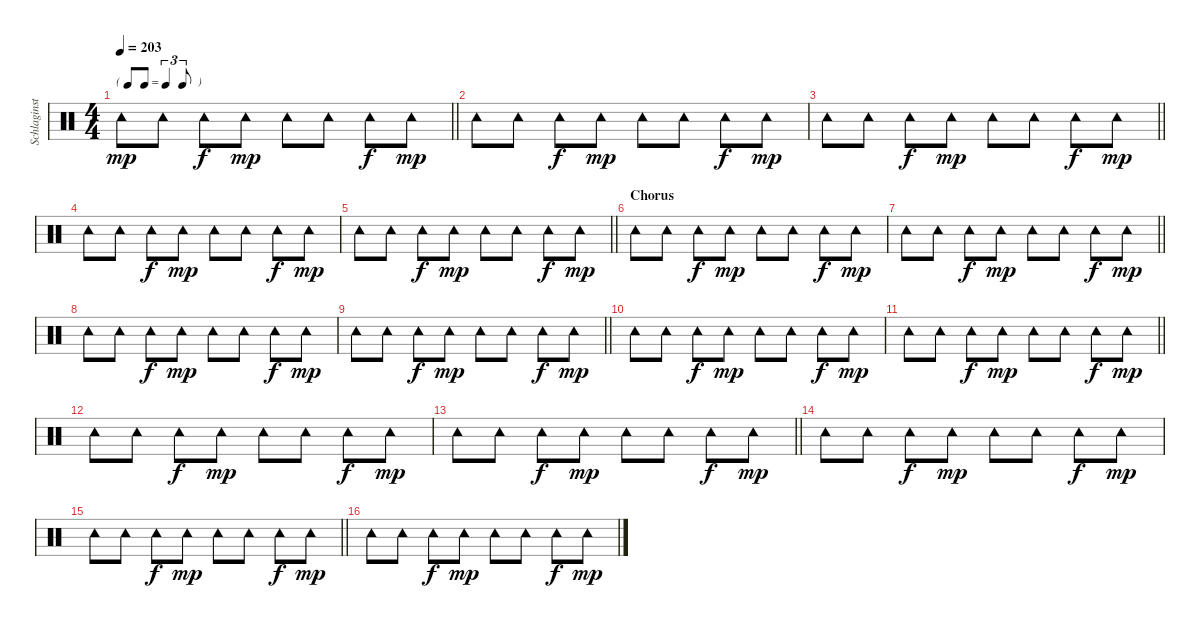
\track ("Schlaginstrumente - Auswahl" "Schlaginst") {instrument percussion}
\staff {score}
\articulation defaults
\ts (4 4)
\tf triplet8th
\tempo 203
\clef neutral
\barLineRight lightlight
\ks c "Tambourine (hit)".8{dy mp} "Tambourine (hit)".8 "Tambourine (hit)".8{dy f} "Tambourine (hit)".8{dy mp} "Tambourine (hit)".8 "Tambourine (hit)".8 "Tambourine (hit)".8{dy f} "Tambourine (hit)".8{dy mp}
|
"Tambourine (hit)".8 "Tambourine (hit)".8 "Tambourine (hit)".8{dy f} "Tambourine (hit)".8{dy mp} "Tambourine (hit)".8 "Tambourine (hit)".8 "Tambourine (hit)".8{dy f} "Tambourine (hit)".8{dy mp} |
\barLineRight lightlight "Tambourine (hit)".8 "Tambourine (hit)".8 "Tambourine (hit)".8{dy f} "Tambourine (hit)".8{dy mp} "Tambourine (hit)".8 "Tambourine (hit)".8 "Tambourine (hit)".8{dy f} "Tambourine (hit)".8{dy mp}
|
"Tambourine (hit)".8 "Tambourine (hit)".8 "Tambourine (hit)".8{dy f} "Tambourine (hit)".8{dy mp} "Tambourine (hit)".8 "Tambourine (hit)".8 "Tambourine (hit)".8{dy f} "Tambourine (hit)".8{dy mp} |
\barLineRight lightlight "Tambourine (hit)".8 "Tambourine (hit)".8 "Tambourine (hit)".8{dy f} "Tambourine (hit)".8{dy mp} "Tambourine (hit)".8 "Tambourine (hit)".8 "Tambourine (hit)".8{dy f} "Tambourine (hit)".8{dy mp}
|
\section ("" "Chorus")
"Tambourine (hit)".8 "Tambourine (hit)".8 "Tambourine (hit)".8{dy f} "Tambourine (hit)".8{dy mp} "Tambourine (hit)".8 "Tambourine (hit)".8 "Tambourine (hit)".8{dy f} "Tambourine (hit)".8{dy mp} |
\barLineRight lightlight "Tambourine (hit)".8 "Tambourine (hit)".8 "Tambourine (hit)".8{dy f} "Tambourine (hit)".8{dy mp} "Tambourine (hit)".8 "Tambourine (hit)".8 "Tambourine (hit)".8{dy f} "Tambourine (hit)".8{dy mp}
|
"Tambourine (hit)".8 "Tambourine (hit)".8 "Tambourine (hit)".8{dy f} "Tambourine (hit)".8{dy mp} "Tambourine (hit)".8 "Tambourine (hit)".8 "Tambourine (hit)".8{dy f} "Tambourine (hit)".8{dy mp} |
\barLineRight lightlight "Tambourine (hit)".8 "Tambourine (hit)".8 "Tambourine (hit)".8{dy f} "Tambourine (hit)".8{dy mp} "Tambourine (hit)".8 "Tambourine (hit)".8 "Tambourine (hit)".8{dy f} "Tambourine (hit)".8{dy mp}
|
"Tambourine (hit)".8 "Tambourine (hit)".8 "Tambourine (hit)".8{dy f} "Tambourine (hit)".8{dy mp} "Tambourine (hit)".8 "Tambourine (hit)".8 "Tambourine (hit)".8{dy f} "Tambourine (hit)".8{dy mp} |
\barLineRight lightlight "Tambourine (hit)".8 "Tambourine (hit)".8 "Tambourine (hit)".8{dy f} "Tambourine (hit)".8{dy mp} "Tambourine (hit)".8 "Tambourine (hit)".8 "Tambourine (hit)".8{dy f} "Tambourine (hit)".8{dy mp}
|
"Tambourine (hit)".8 "Tambourine (hit)".8 "Tambourine (hit)".8{dy f} "Tambourine (hit)".8{dy mp} "Tambourine (hit)".8 "Tambourine (hit)".8 "Tambourine (hit)".8{dy f} "Tambourine (hit)".8{dy mp} |
\barLineRight lightlight "Tambourine (hit)".8 "Tambourine (hit)".8 "Tambourine (hit)".8{dy f} "Tambourine (hit)".8{dy mp} "Tambourine (hit)".8 "Tambourine (hit)".8 "Tambourine (hit)".8{dy f} "Tambourine (hit)".8{dy mp}
|
"Tambourine (hit)".8 "Tambourine (hit)".8 "Tambourine (hit)".8{dy f} "Tambourine (hit)".8{dy mp} "Tambourine (hit)".8 "Tambourine (hit)".8 "Tambourine (hit)".8{dy f} "Tambourine (hit)".8{dy mp} |
\barLineRight lightlight "Tambourine (hit)".8 "Tambourine (hit)".8 "Tambourine (hit)".8{dy f} "Tambourine (hit)".8{dy mp} "Tambourine (hit)".8 "Tambourine (hit)".8 "Tambourine (hit)".8{dy f} "Tambourine (hit)".8{dy mp}
|
"Tambourine (hit)".8 "Tambourine (hit)".8 "Tambourine (hit)".8{dy f} "Tambourine (hit)".8{dy mp} "Tambourine (hit)".8 "Tambourine (hit)".8 "Tambourine (hit)".8{dy f} "Tambourine (hit)".8{dy mp}
